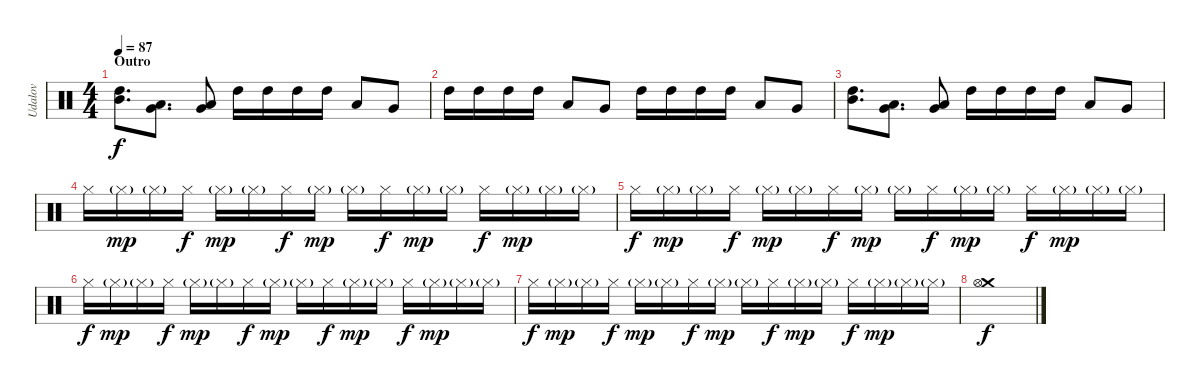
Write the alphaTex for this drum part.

\track ("Udalov" "Udalov") {instrument percussion}
\staff {score}
\articulation defaults
\ts (4 4)
\section ("" "Outro")
\tempo 87
\clef neutral
\ks c
("High Tom (hit)" "Mid Tom (hit)").8{d dy f} ("Low Tom (hit)" "Very Low Tom (hit)").8{d} ("Very Low Tom (hit)" "Low Floor Tom (hit)").8 "High Tom (hit)".16 "High Tom (hit)".16 "High Tom (hit)".16 "High Tom (hit)".16 "Low Tom (hit)".8 "Very Low Tom (hit)".8 |
"High Tom (hit)".16 "High Tom (hit)".16 "High Tom (hit)".16 "High Tom (hit)".16 "Low Tom (hit)".8 "Very Low Tom (hit)".8 "High Tom (hit)".16 "High Tom (hit)".16 "High Tom (hit)".16 "High Tom (hit)".16 "Low Tom (hit)".8 "Very Low Tom (hit)".8 |
("High Tom (hit)" "Mid Tom (hit)").8{d} ("Low Tom (hit)" "Very Low Tom (hit)").8{d} ("Very Low Tom (hit)" "Low Floor Tom (hit)").8 "High Tom (hit)".16 "High Tom (hit)".16 "High Tom (hit)".16 "High Tom (hit)".16 "Low Tom (hit)".8 "Very Low Tom (hit)".8 |
"Hi-Hat (closed)".16 "Hi-Hat (closed)"{g}.16{dy mp} "Hi-Hat (closed)"{g}.16 "Hi-Hat (closed)".16{dy f} "Hi-Hat (closed)"{g}.16{dy mp} "Hi-Hat (closed)"{g}.16 "Hi-Hat (closed)".16{dy f} "Hi-Hat (closed)"{g}.16{dy mp} "Hi-Hat (closed)"{g}.16 "Hi-Hat (closed)".16{dy f} "Hi-Hat (closed)"{g}.16{dy mp} "Hi-Hat (closed)"{g}.16 "Hi-Hat (closed)".16{dy f} "Hi-Hat (closed)"{g}.16{dy mp} "Hi-Hat (closed)"{g}.16 "Hi-Hat (closed)"{g}.16 |
"Hi-Hat (closed)".16{dy f} "Hi-Hat (closed)"{g}.16{dy mp} "Hi-Hat (closed)"{g}.16 "Hi-Hat (closed)".16{dy f} "Hi-Hat (closed)"{g}.16{dy mp} "Hi-Hat (closed)"{g}.16 "Hi-Hat (closed)".16{dy f} "Hi-Hat (closed)"{g}.16{dy mp} "Hi-Hat (closed)"{g}.16 "Hi-Hat (closed)".16{dy f} "Hi-Hat (closed)"{g}.16{dy mp} "Hi-Hat (closed)"{g}.16 "Hi-Hat (closed)".16{dy f} "Hi-Hat (closed)"{g}.16{dy mp} "Hi-Hat (closed)"{g}.16 "Hi-Hat (closed)"{g}.16 |
"Hi-Hat (closed)".16{dy f} "Hi-Hat (closed)"{g}.16{dy mp} "Hi-Hat (closed)"{g}.16 "Hi-Hat (closed)".16{dy f} "Hi-Hat (closed)"{g}.16{dy mp} "Hi-Hat (closed)"{g}.16 "Hi-Hat (closed)".16{dy f} "Hi-Hat (closed)"{g}.16{dy mp} "Hi-Hat (closed)"{g}.16 "Hi-Hat (closed)".16{dy f} "Hi-Hat (closed)"{g}.16{dy mp} "Hi-Hat (closed)"{g}.16 "Hi-Hat (closed)".16{dy f} "Hi-Hat (closed)"{g}.16{dy mp} "Hi-Hat (closed)"{g}.16 "Hi-Hat (closed)"{g}.16 |
"Hi-Hat (closed)".16{dy f} "Hi-Hat (closed)"{g}.16{dy mp} "Hi-Hat (closed)"{g}.16 "Hi-Hat (closed)".16{dy f} "Hi-Hat (closed)"{g}.16{dy mp} "Hi-Hat (closed)"{g}.16 "Hi-Hat (closed)".16{dy f} "Hi-Hat (closed)"{g}.16{dy mp} "Hi-Hat (closed)"{g}.16 "Hi-Hat (closed)".16{dy f} "Hi-Hat (closed)"{g}.16{dy mp} "Hi-Hat (closed)"{g}.16 "Hi-Hat (closed)".16{dy f} "Hi-Hat (closed)"{g}.16{dy mp} "Hi-Hat (closed)"{g}.16 "Hi-Hat (closed)"{g}.16 |
("Crash medium (hit)" "Hi-Hat (open)").1{dy f}
